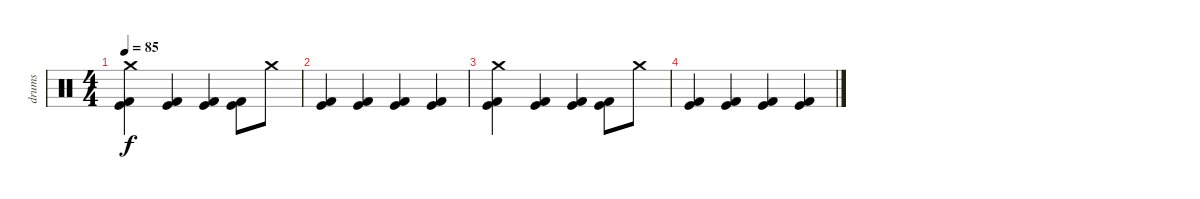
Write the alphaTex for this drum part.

\track ("drums" "drums") {instrument percussion}
\staff {score}
\articulation defaults
\ts (4 4)
\tempo 85
\clef neutral
\ks c
("Crash medium (hit)" "Kick (hit)" "Kick (hit) 2").4{dy f volume 0} ("Kick (hit)" "Kick (hit) 2").4 ("Kick (hit)" "Kick (hit) 2").4 ("Kick (hit)" "Kick (hit) 2").8 "Crash medium (hit)".8 |
("Kick (hit)" "Kick (hit) 2").4 ("Kick (hit)" "Kick (hit) 2").4 ("Kick (hit)" "Kick (hit) 2").4 ("Kick (hit)" "Kick (hit) 2").4 |
("Crash medium (hit)" "Kick (hit)" "Kick (hit) 2").4 ("Kick (hit)" "Kick (hit) 2").4 ("Kick (hit)" "Kick (hit) 2").4 ("Kick (hit)" "Kick (hit) 2").8 "Crash medium (hit)".8 |
("Kick (hit)" "Kick (hit) 2").4 ("Kick (hit)" "Kick (hit) 2").4 ("Kick (hit)" "Kick (hit) 2").4 ("Kick (hit)" "Kick (hit) 2").4
